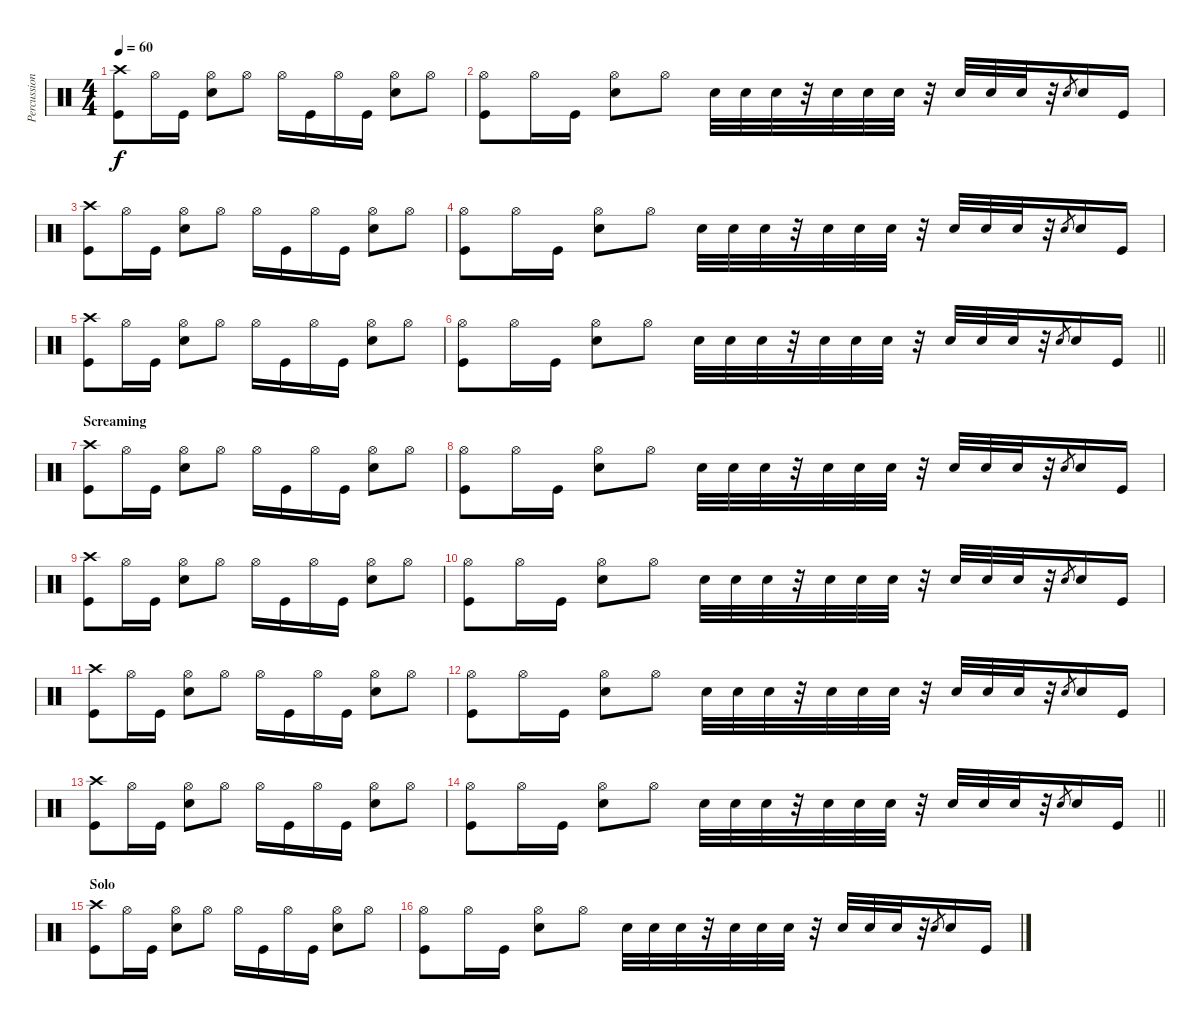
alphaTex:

\track ("Percussion" "Percussion") {instrument percussion}
\staff {score}
\articulation defaults
\ts (4 4)
\tempo 60
\clef neutral
\ks c
("Crash high (hit)" "Kick (hit)").8{dy f} "Hi-Hat (open)".16 "Kick (hit)".16 ("Hi-Hat (open)" "Snare (hit) 2").8 "Hi-Hat (open)".8 "Hi-Hat (open)".16 "Kick (hit)".16 "Hi-Hat (open)".16 "Kick (hit)".16 ("Hi-Hat (open)" "Snare (hit) 2").8 "Hi-Hat (open)".8 |
("Hi-Hat (open)" "Kick (hit)").8 "Hi-Hat (open)".16 "Kick (hit)".16 ("Hi-Hat (open)" "Snare (hit) 2").8 "Hi-Hat (open)".8 "Snare (hit) 2".32 "Snare (hit) 2".32 "Snare (hit) 2".32 r.32 "Snare (hit) 2".32 "Snare (hit) 2".32 "Snare (hit) 2".32 r.32 "Snare (hit) 2".32 "Snare (hit) 2".32 "Snare (hit) 2".32 r.32 "Snare (hit) 2".8{gr} "Snare (hit) 2".16 "Kick (hit)".16 |
("Crash high (hit)" "Kick (hit)").8 "Hi-Hat (open)".16 "Kick (hit)".16 ("Hi-Hat (open)" "Snare (hit) 2").8 "Hi-Hat (open)".8 "Hi-Hat (open)".16 "Kick (hit)".16 "Hi-Hat (open)".16 "Kick (hit)".16 ("Hi-Hat (open)" "Snare (hit) 2").8 "Hi-Hat (open)".8 |
("Hi-Hat (open)" "Kick (hit)").8 "Hi-Hat (open)".16 "Kick (hit)".16 ("Hi-Hat (open)" "Snare (hit) 2").8 "Hi-Hat (open)".8 "Snare (hit) 2".32 "Snare (hit) 2".32 "Snare (hit) 2".32 r.32 "Snare (hit) 2".32 "Snare (hit) 2".32 "Snare (hit) 2".32 r.32 "Snare (hit) 2".32 "Snare (hit) 2".32 "Snare (hit) 2".32 r.32 "Snare (hit) 2".8{gr} "Snare (hit) 2".16 "Kick (hit)".16 |
("Crash high (hit)" "Kick (hit)").8 "Hi-Hat (open)".16 "Kick (hit)".16 ("Hi-Hat (open)" "Snare (hit) 2").8 "Hi-Hat (open)".8 "Hi-Hat (open)".16 "Kick (hit)".16 "Hi-Hat (open)".16 "Kick (hit)".16 ("Hi-Hat (open)" "Snare (hit) 2").8 "Hi-Hat (open)".8 |
\barLineRight lightlight
("Hi-Hat (open)" "Kick (hit)").8 "Hi-Hat (open)".16 "Kick (hit)".16 ("Hi-Hat (open)" "Snare (hit) 2").8 "Hi-Hat (open)".8 "Snare (hit) 2".32 "Snare (hit) 2".32 "Snare (hit) 2".32 r.32 "Snare (hit) 2".32 "Snare (hit) 2".32 "Snare (hit) 2".32 r.32 "Snare (hit) 2".32 "Snare (hit) 2".32 "Snare (hit) 2".32 r.32 "Snare (hit) 2".8{gr} "Snare (hit) 2".16 "Kick (hit)".16 |
\section ("" "Screaming")
("Crash high (hit)" "Kick (hit)").8 "Hi-Hat (open)".16 "Kick (hit)".16 ("Hi-Hat (open)" "Snare (hit) 2").8 "Hi-Hat (open)".8 "Hi-Hat (open)".16 "Kick (hit)".16 "Hi-Hat (open)".16 "Kick (hit)".16 ("Hi-Hat (open)" "Snare (hit) 2").8 "Hi-Hat (open)".8 |
("Hi-Hat (open)" "Kick (hit)").8 "Hi-Hat (open)".16 "Kick (hit)".16 ("Hi-Hat (open)" "Snare (hit) 2").8 "Hi-Hat (open)".8 "Snare (hit) 2".32 "Snare (hit) 2".32 "Snare (hit) 2".32 r.32 "Snare (hit) 2".32 "Snare (hit) 2".32 "Snare (hit) 2".32 r.32 "Snare (hit) 2".32 "Snare (hit) 2".32 "Snare (hit) 2".32 r.32 "Snare (hit) 2".8{gr} "Snare (hit) 2".16 "Kick (hit)".16 |
("Crash high (hit)" "Kick (hit)").8 "Hi-Hat (open)".16 "Kick (hit)".16 ("Hi-Hat (open)" "Snare (hit) 2").8 "Hi-Hat (open)".8 "Hi-Hat (open)".16 "Kick (hit)".16 "Hi-Hat (open)".16 "Kick (hit)".16 ("Hi-Hat (open)" "Snare (hit) 2").8 "Hi-Hat (open)".8 |
("Hi-Hat (open)" "Kick (hit)").8 "Hi-Hat (open)".16 "Kick (hit)".16 ("Hi-Hat (open)" "Snare (hit) 2").8 "Hi-Hat (open)".8 "Snare (hit) 2".32 "Snare (hit) 2".32 "Snare (hit) 2".32 r.32 "Snare (hit) 2".32 "Snare (hit) 2".32 "Snare (hit) 2".32 r.32 "Snare (hit) 2".32 "Snare (hit) 2".32 "Snare (hit) 2".32 r.32 "Snare (hit) 2".8{gr} "Snare (hit) 2".16 "Kick (hit)".16 |
("Crash high (hit)" "Kick (hit)").8 "Hi-Hat (open)".16 "Kick (hit)".16 ("Hi-Hat (open)" "Snare (hit) 2").8 "Hi-Hat (open)".8 "Hi-Hat (open)".16 "Kick (hit)".16 "Hi-Hat (open)".16 "Kick (hit)".16 ("Hi-Hat (open)" "Snare (hit) 2").8 "Hi-Hat (open)".8 |
("Hi-Hat (open)" "Kick (hit)").8 "Hi-Hat (open)".16 "Kick (hit)".16 ("Hi-Hat (open)" "Snare (hit) 2").8 "Hi-Hat (open)".8 "Snare (hit) 2".32 "Snare (hit) 2".32 "Snare (hit) 2".32 r.32 "Snare (hit) 2".32 "Snare (hit) 2".32 "Snare (hit) 2".32 r.32 "Snare (hit) 2".32 "Snare (hit) 2".32 "Snare (hit) 2".32 r.32 "Snare (hit) 2".8{gr} "Snare (hit) 2".16 "Kick (hit)".16 |
("Crash high (hit)" "Kick (hit)").8 "Hi-Hat (open)".16 "Kick (hit)".16 ("Hi-Hat (open)" "Snare (hit) 2").8 "Hi-Hat (open)".8 "Hi-Hat (open)".16 "Kick (hit)".16 "Hi-Hat (open)".16 "Kick (hit)".16 ("Hi-Hat (open)" "Snare (hit) 2").8 "Hi-Hat (open)".8 |
\barLineRight lightlight
("Hi-Hat (open)" "Kick (hit)").8 "Hi-Hat (open)".16 "Kick (hit)".16 ("Hi-Hat (open)" "Snare (hit) 2").8 "Hi-Hat (open)".8 "Snare (hit) 2".32 "Snare (hit) 2".32 "Snare (hit) 2".32 r.32 "Snare (hit) 2".32 "Snare (hit) 2".32 "Snare (hit) 2".32 r.32 "Snare (hit) 2".32 "Snare (hit) 2".32 "Snare (hit) 2".32 r.32 "Snare (hit) 2".8{gr} "Snare (hit) 2".16 "Kick (hit)".16 |
\section ("" "Solo")
("Crash high (hit)" "Kick (hit)").8 "Hi-Hat (open)".16 "Kick (hit)".16 ("Hi-Hat (open)" "Snare (hit) 2").8 "Hi-Hat (open)".8 "Hi-Hat (open)".16 "Kick (hit)".16 "Hi-Hat (open)".16 "Kick (hit)".16 ("Hi-Hat (open)" "Snare (hit) 2").8 "Hi-Hat (open)".8 |
("Hi-Hat (open)" "Kick (hit)").8 "Hi-Hat (open)".16 "Kick (hit)".16 ("Hi-Hat (open)" "Snare (hit) 2").8 "Hi-Hat (open)".8 "Snare (hit) 2".32 "Snare (hit) 2".32 "Snare (hit) 2".32 r.32 "Snare (hit) 2".32 "Snare (hit) 2".32 "Snare (hit) 2".32 r.32 "Snare (hit) 2".32 "Snare (hit) 2".32 "Snare (hit) 2".32 r.32 "Snare (hit) 2".8{gr} "Snare (hit) 2".16 "Kick (hit)".16
